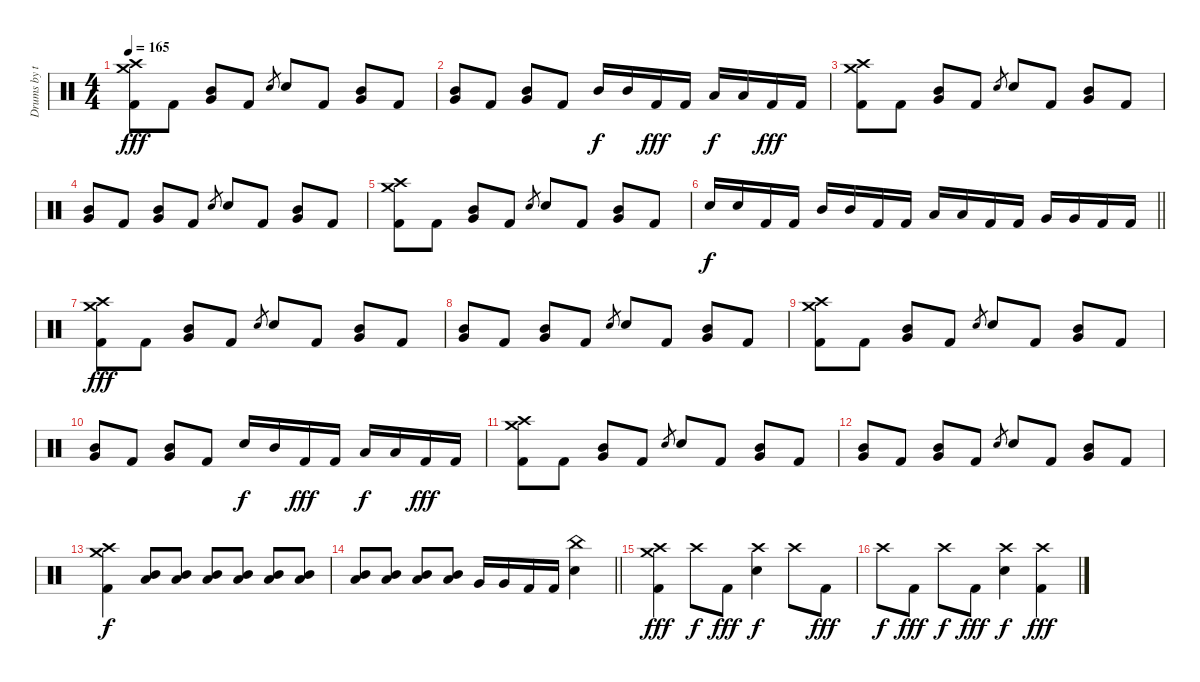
\track ("Drums by terryn0" "Drums by t") {instrument percussion}
\staff {score}
\articulation defaults
\ts (4 4)
\tempo 165
\clef neutral
\ks c
("Crash high (hit)" "Crash medium (hit)" "Kick (hit) 2").8{dy fff} "Kick (hit) 2".8 ("Mid Tom (hit)" "Very Low Tom (hit)").8 "Kick (hit) 2".8 "Electric Snare (hit)".8{gr} "Electric Snare (hit)".8 "Kick (hit) 2".8 ("Mid Tom (hit)" "Very Low Tom (hit)").8 "Kick (hit) 2".8 |
("Mid Tom (hit)" "Very Low Tom (hit)").8 "Kick (hit) 2".8 ("Mid Tom (hit)" "Very Low Tom (hit)").8 "Kick (hit) 2".8 "Mid Tom (hit)".16{dy f} "Mid Tom (hit)".16 "Kick (hit) 2".16{dy fff} "Kick (hit) 2".16 "Low Tom (hit)".16{dy f} "Low Tom (hit)".16 "Kick (hit) 2".16{dy fff} "Kick (hit) 2".16 |
("Crash high (hit)" "Crash medium (hit)" "Kick (hit) 2").8 "Kick (hit) 2".8 ("Mid Tom (hit)" "Very Low Tom (hit)").8 "Kick (hit) 2".8 "Electric Snare (hit)".8{gr} "Electric Snare (hit)".8 "Kick (hit) 2".8 ("Mid Tom (hit)" "Very Low Tom (hit)").8 "Kick (hit) 2".8 |
("Mid Tom (hit)" "Very Low Tom (hit)").8 "Kick (hit) 2".8 ("Mid Tom (hit)" "Very Low Tom (hit)").8 "Kick (hit) 2".8 "Electric Snare (hit)".8{gr} "Electric Snare (hit)".8 "Kick (hit) 2".8 ("Mid Tom (hit)" "Very Low Tom (hit)").8 "Kick (hit) 2".8 |
("Crash high (hit)" "Crash medium (hit)" "Kick (hit) 2").8 "Kick (hit) 2".8 ("Mid Tom (hit)" "Very Low Tom (hit)").8 "Kick (hit) 2".8 "Electric Snare (hit)".8{gr} "Electric Snare (hit)".8 "Kick (hit) 2".8 ("Mid Tom (hit)" "Very Low Tom (hit)").8 "Kick (hit) 2".8 |
\barLineRight lightlight "Electric Snare (hit)".16{dy f} "Electric Snare (hit)".16 "Kick (hit) 2".16 "Kick (hit) 2".16 "Mid Tom (hit)".16 "Mid Tom (hit)".16 "Kick (hit) 2".16 "Kick (hit) 2".16 "Low Tom (hit)".16 "Low Tom (hit)".16 "Kick (hit) 2".16 "Kick (hit) 2".16 "Very Low Tom (hit)".16 "Very Low Tom (hit)".16 "Kick (hit) 2".16 "Kick (hit) 2".16
|
("Crash high (hit)" "Crash medium (hit)" "Kick (hit) 2").8{dy fff} "Kick (hit) 2".8 ("Mid Tom (hit)" "Very Low Tom (hit)").8 "Kick (hit) 2".8 "Electric Snare (hit)".8{gr} "Electric Snare (hit)".8 "Kick (hit) 2".8 ("Mid Tom (hit)" "Very Low Tom (hit)").8 "Kick (hit) 2".8 |
("Mid Tom (hit)" "Very Low Tom (hit)").8 "Kick (hit) 2".8 ("Mid Tom (hit)" "Very Low Tom (hit)").8 "Kick (hit) 2".8 "Electric Snare (hit)".8{gr} "Electric Snare (hit)".8 "Kick (hit) 2".8 ("Mid Tom (hit)" "Very Low Tom (hit)").8 "Kick (hit) 2".8 |
("Crash high (hit)" "Crash medium (hit)" "Kick (hit) 2").8 "Kick (hit) 2".8 ("Mid Tom (hit)" "Very Low Tom (hit)").8 "Kick (hit) 2".8 "Electric Snare (hit)".8{gr} "Electric Snare (hit)".8 "Kick (hit) 2".8 ("Mid Tom (hit)" "Very Low Tom (hit)").8 "Kick (hit) 2".8 |
("Mid Tom (hit)" "Very Low Tom (hit)").8 "Kick (hit) 2".8 ("Mid Tom (hit)" "Very Low Tom (hit)").8 "Kick (hit) 2".8 "Electric Snare (hit)".16{dy f} "Mid Tom (hit)".16 "Kick (hit) 2".16{dy fff} "Kick (hit) 2".16 "Low Tom (hit)".16{dy f} "Low Tom (hit)".16 "Kick (hit) 2".16{dy fff} "Kick (hit) 2".16 |
("Crash high (hit)" "Crash medium (hit)" "Kick (hit) 2").8 "Kick (hit) 2".8 ("Mid Tom (hit)" "Very Low Tom (hit)").8 "Kick (hit) 2".8 "Electric Snare (hit)".8{gr} "Electric Snare (hit)".8 "Kick (hit) 2".8 ("Mid Tom (hit)" "Very Low Tom (hit)").8 "Kick (hit) 2".8 |
("Mid Tom (hit)" "Very Low Tom (hit)").8 "Kick (hit) 2".8 ("Mid Tom (hit)" "Very Low Tom (hit)").8 "Kick (hit) 2".8 "Electric Snare (hit)".8{gr} "Electric Snare (hit)".8 "Kick (hit) 2".8 ("Mid Tom (hit)" "Very Low Tom (hit)").8 "Kick (hit) 2".8 |
("Crash high (hit)" "Crash medium (hit)" "Kick (hit) 2").4{dy f} ("Low Tom (hit)" "Mid Tom (hit)").8 ("Low Tom (hit)" "Mid Tom (hit)").8 ("Low Tom (hit)" "Mid Tom (hit)").8 ("Low Tom (hit)" "Mid Tom (hit)").8 ("Low Tom (hit)" "Mid Tom (hit)").8 ("Low Tom (hit)" "Mid Tom (hit)").8 |
\barLineRight lightlight
("Low Tom (hit)" "Mid Tom (hit)").8 ("Low Tom (hit)" "Mid Tom (hit)").8 ("Low Tom (hit)" "Mid Tom (hit)").8 ("Low Tom (hit)" "Mid Tom (hit)").8 "Very Low Tom (hit)".16 "Very Low Tom (hit)".16 "Kick (hit) 2".16 "Kick (hit) 2".16 ("China (hit)" "Electric Snare (hit)").4 |
("Crash medium (hit)" "Crash high (hit)" "Kick (hit) 2").4{dy fff} "Crash high (hit)".8{dy f} "Kick (hit) 2".8{dy fff} ("Crash high (hit)" "Electric Snare (hit)").4{dy f} "Crash high (hit)".8 "Kick (hit) 2".8{dy fff} |
"Crash high (hit)".8{dy f} "Kick (hit) 2".8{dy fff} "Crash high (hit)".8{dy f} "Kick (hit) 2".8{dy fff} ("Crash high (hit)" "Electric Snare (hit)").4{dy f} ("Crash high (hit)" "Kick (hit) 2").4{dy fff}
